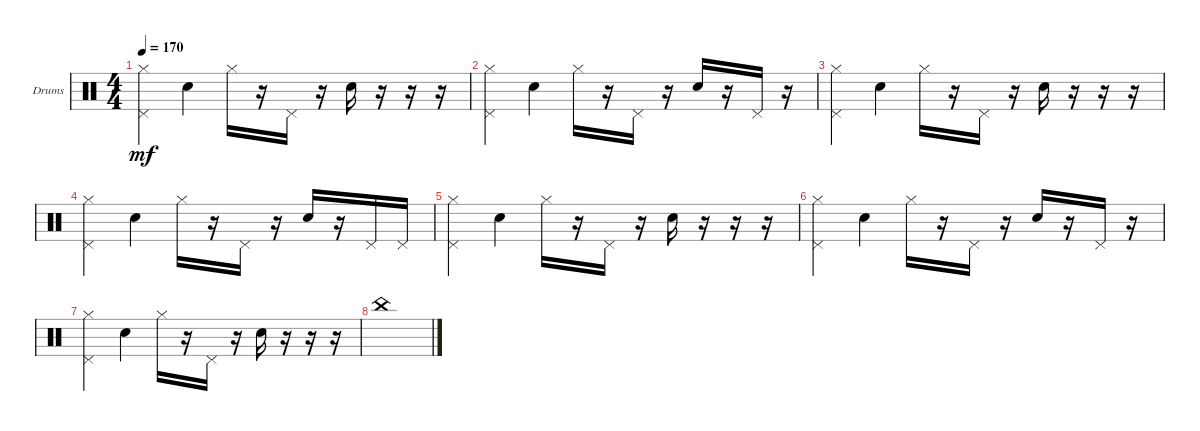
\defaultSystemsLayout 4
\bracketExtendMode groupsimilarinstruments
\firstSystemTrackNameOrientation horizontal
\otherSystemsTrackNameOrientation horizontal
\track ("Drumkit" "Drums") {instrument percussion}
\staff {score}
\articulation defaults
\ts (4 4)
\tempo 170
\clef neutral
\scale
0.333333
\ks c
("Hi-Hat (closed)" "Pedal Hi-Hat (hit)").4{dy mf} "Snare (hit) 2".4 "Hi-Hat (closed)".16 r.16 "Pedal Hi-Hat (hit)".16 r.16 "Snare (hit) 2".16 r.16 r.16 r.16 |
\scale
0.333333 ("Hi-Hat (closed)" "Pedal Hi-Hat (hit)").4 "Snare (hit) 2".4 "Hi-Hat (closed)".16 r.16 "Pedal Hi-Hat (hit)".16 r.16 "Snare (hit) 2".16 r.16 "Pedal Hi-Hat (hit)".16 r.16 |
\scale
0.333333 ("Hi-Hat (closed)" "Pedal Hi-Hat (hit)").4 "Snare (hit) 2".4 "Hi-Hat (closed)".16 r.16 "Pedal Hi-Hat (hit)".16 r.16 "Snare (hit) 2".16 r.16 r.16 r.16 |
\scale
0.333333 ("Hi-Hat (closed)" "Pedal Hi-Hat (hit)").4 "Snare (hit) 2".4 "Hi-Hat (closed)".16 r.16 "Pedal Hi-Hat (hit)".16 r.16 "Snare (hit) 2".16 r.16 "Pedal Hi-Hat (hit)".16 "Pedal Hi-Hat (hit)".16 |
\scale
0.333333 ("Hi-Hat (closed)" "Pedal Hi-Hat (hit)").4 "Snare (hit) 2".4 "Hi-Hat (closed)".16 r.16 "Pedal Hi-Hat (hit)".16 r.16 "Snare (hit) 2".16 r.16 r.16 r.16 |
\scale
0.333333 ("Hi-Hat (closed)" "Pedal Hi-Hat (hit)").4 "Snare (hit) 2".4 "Hi-Hat (closed)".16 r.16 "Pedal Hi-Hat (hit)".16 r.16 "Snare (hit) 2".16 r.16 "Pedal Hi-Hat (hit)".16 r.16 |
\scale
0.333333 ("Hi-Hat (closed)" "Pedal Hi-Hat (hit)").4 "Snare (hit) 2".4 "Hi-Hat (closed)".16 r.16 "Pedal Hi-Hat (hit)".16 r.16 "Snare (hit) 2".16 r.16 r.16 r.16 |
"China (hit)".1
